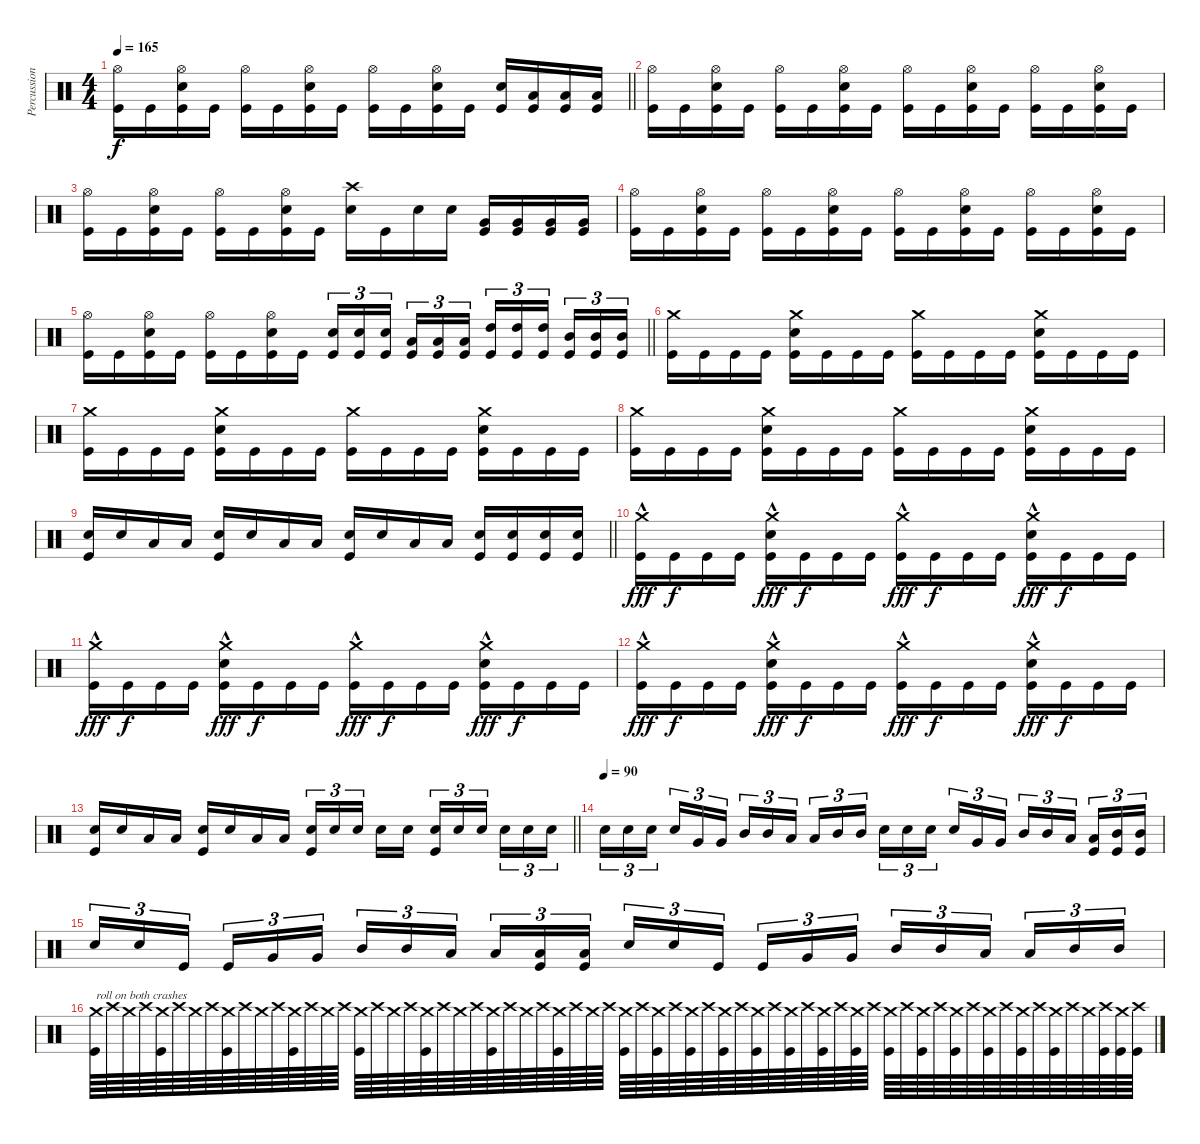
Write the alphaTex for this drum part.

\track ("Percussion (Aksu)" "Percussion") {instrument percussion}
\staff {score}
\articulation defaults
\ts (4 4)
\tempo 165
\clef neutral
\barLineRight lightlight
\ks c
("Hi-Hat (open)" "Kick (hit)").16{dy f} "Kick (hit)".16 ("Hi-Hat (open)" "Snare (hit) 2" "Kick (hit)").16 "Kick (hit)".16 ("Hi-Hat (open)" "Kick (hit)").16 "Kick (hit)".16 ("Hi-Hat (open)" "Snare (hit) 2" "Kick (hit)").16 "Kick (hit)".16 ("Hi-Hat (open)" "Kick (hit)").16 "Kick (hit)".16 ("Hi-Hat (open)" "Snare (hit) 2" "Kick (hit)").16 "Kick (hit)".16 ("Snare (hit) 2" "Kick (hit)").16 ("Low Floor Tom (hit)" "Kick (hit)").16 ("Low Floor Tom (hit)" "Kick (hit)").16 ("Low Floor Tom (hit)" "Kick (hit)").16 |
("Hi-Hat (open)" "Kick (hit)").16 "Kick (hit)".16 ("Hi-Hat (open)" "Snare (hit) 2" "Kick (hit)").16 "Kick (hit)".16 ("Hi-Hat (open)" "Kick (hit)").16 "Kick (hit)".16 ("Hi-Hat (open)" "Snare (hit) 2" "Kick (hit)").16 "Kick (hit)".16 ("Hi-Hat (open)" "Kick (hit)").16 "Kick (hit)".16 ("Hi-Hat (open)" "Snare (hit) 2" "Kick (hit)").16 "Kick (hit)".16 ("Hi-Hat (open)" "Kick (hit)").16 "Kick (hit)".16 ("Hi-Hat (open)" "Snare (hit) 2" "Kick (hit)").16 "Kick (hit)".16 |
("Hi-Hat (open)" "Kick (hit)").16 "Kick (hit)".16 ("Hi-Hat (open)" "Snare (hit) 2" "Kick (hit)").16 "Kick (hit)".16 ("Hi-Hat (open)" "Kick (hit)").16 "Kick (hit)".16 ("Hi-Hat (open)" "Snare (hit) 2" "Kick (hit)").16 "Kick (hit)".16 ("Crash high (hit)" "Snare (hit) 2").16 "Kick (hit)".16 "Snare (hit) 2".16 "Snare (hit) 2".16 ("Very Low Tom (hit)" "Kick (hit)").16 ("Very Low Tom (hit)" "Kick (hit)").16 ("Very Low Tom (hit)" "Kick (hit)").16 ("Very Low Tom (hit)" "Kick (hit)").16 |
("Hi-Hat (open)" "Kick (hit)").16 "Kick (hit)".16 ("Hi-Hat (open)" "Snare (hit) 2" "Kick (hit)").16 "Kick (hit)".16 ("Hi-Hat (open)" "Kick (hit)").16 "Kick (hit)".16 ("Hi-Hat (open)" "Snare (hit) 2" "Kick (hit)").16 "Kick (hit)".16 ("Hi-Hat (open)" "Kick (hit)").16 "Kick (hit)".16 ("Hi-Hat (open)" "Snare (hit) 2" "Kick (hit)").16 "Kick (hit)".16 ("Hi-Hat (open)" "Kick (hit)").16 "Kick (hit)".16 ("Hi-Hat (open)" "Snare (hit) 2" "Kick (hit)").16 "Kick (hit)".16 |
\barLineRight lightlight
("Hi-Hat (open)" "Kick (hit)").16 "Kick (hit)".16 ("Hi-Hat (open)" "Snare (hit) 2" "Kick (hit)").16 "Kick (hit)".16 ("Hi-Hat (open)" "Kick (hit)").16 "Kick (hit)".16 ("Hi-Hat (open)" "Snare (hit) 2" "Kick (hit)").16 "Kick (hit)".16 ("Snare (hit) 2" "Kick (hit)").16{tu (3 2)} ("Snare (hit) 2" "Kick (hit)").16{tu (3 2)} ("Snare (hit) 2" "Kick (hit)").16{tu (3 2) beam splitsecondary} ("Low Tom (hit)" "Kick (hit)").16{tu (3 2)} ("Low Tom (hit)" "Kick (hit)").16{tu (3 2)} ("Low Tom (hit)" "Kick (hit)").16{tu (3 2)} ("High Tom (hit)" "Kick (hit)").16{tu (3 2)} ("High Tom (hit)" "Kick (hit)").16{tu (3 2)} ("High Tom (hit)" "Kick (hit)").16{tu (3 2) beam splitsecondary} ("Mid Tom (hit)" "Kick (hit)").16{tu (3 2)} ("Mid Tom (hit)" "Kick (hit)").16{tu (3 2)} ("Mid Tom (hit)" "Kick (hit)").16{tu (3 2)} |
("Crash medium (hit)" "Kick (hit)").16 "Kick (hit)".16 "Kick (hit)".16 "Kick (hit)".16 ("Crash medium (hit)" "Snare (hit) 2" "Kick (hit)").16 "Kick (hit)".16 "Kick (hit)".16 "Kick (hit)".16 ("Crash medium (hit)" "Kick (hit)").16 "Kick (hit)".16 "Kick (hit)".16 "Kick (hit)".16 ("Crash medium (hit)" "Snare (hit) 2" "Kick (hit)").16 "Kick (hit)".16 "Kick (hit)".16 "Kick (hit)".16 |
("Crash medium (hit)" "Kick (hit)").16 "Kick (hit)".16 "Kick (hit)".16 "Kick (hit)".16 ("Crash medium (hit)" "Snare (hit) 2" "Kick (hit)").16 "Kick (hit)".16 "Kick (hit)".16 "Kick (hit)".16 ("Crash medium (hit)" "Kick (hit)").16 "Kick (hit)".16 "Kick (hit)".16 "Kick (hit)".16 ("Crash medium (hit)" "Snare (hit) 2" "Kick (hit)").16 "Kick (hit)".16 "Kick (hit)".16 "Kick (hit)".16 |
("Crash medium (hit)" "Kick (hit)").16 "Kick (hit)".16 "Kick (hit)".16 "Kick (hit)".16 ("Crash medium (hit)" "Snare (hit) 2" "Kick (hit)").16 "Kick (hit)".16 "Kick (hit)".16 "Kick (hit)".16 ("Crash medium (hit)" "Kick (hit)").16 "Kick (hit)".16 "Kick (hit)".16 "Kick (hit)".16 ("Crash medium (hit)" "Snare (hit) 2" "Kick (hit)").16 "Kick (hit)".16 "Kick (hit)".16 "Kick (hit)".16 |
\barLineRight lightlight
("Snare (hit) 2" "Kick (hit)").16 "Snare (hit) 2".16 "Low Tom (hit)".16 "Low Tom (hit)".16 ("Snare (hit) 2" "Kick (hit)").16 "Snare (hit) 2".16 "Low Tom (hit)".16 "Low Tom (hit)".16 ("Snare (hit) 2" "Kick (hit)").16 "Snare (hit) 2".16 "Low Tom (hit)".16 "Low Tom (hit)".16 ("Snare (hit) 2" "Kick (hit)").16 ("Snare (hit) 2" "Kick (hit)").16 ("Snare (hit) 2" "Kick (hit)").16 ("Snare (hit) 2" "Kick (hit)").16 |
("Crash medium (hit)"{hac} "Kick (hit)").16{dy fff volume 16} "Kick (hit)".16{dy f} "Kick (hit)".16 "Kick (hit)".16 ("Crash medium (hit)"{hac} "Snare (hit) 2" "Kick (hit)").16{dy fff} "Kick (hit)".16{dy f} "Kick (hit)".16 "Kick (hit)".16 ("Crash medium (hit)"{hac} "Kick (hit)").16{dy fff} "Kick (hit)".16{dy f} "Kick (hit)".16 "Kick (hit)".16 ("Crash medium (hit)"{hac} "Snare (hit) 2" "Kick (hit)").16{dy fff} "Kick (hit)".16{dy f} "Kick (hit)".16 "Kick (hit)".16 |
("Crash medium (hit)"{hac} "Kick (hit)").16{dy fff} "Kick (hit)".16{dy f} "Kick (hit)".16 "Kick (hit)".16 ("Crash medium (hit)"{hac} "Snare (hit) 2" "Kick (hit)").16{dy fff} "Kick (hit)".16{dy f} "Kick (hit)".16 "Kick (hit)".16 ("Crash medium (hit)"{hac} "Kick (hit)").16{dy fff} "Kick (hit)".16{dy f} "Kick (hit)".16 "Kick (hit)".16 ("Crash medium (hit)"{hac} "Snare (hit) 2" "Kick (hit)").16{dy fff} "Kick (hit)".16{dy f} "Kick (hit)".16 "Kick (hit)".16 |
("Crash medium (hit)"{hac} "Kick (hit)").16{dy fff} "Kick (hit)".16{dy f} "Kick (hit)".16 "Kick (hit)".16 ("Crash medium (hit)"{hac} "Snare (hit) 2" "Kick (hit)").16{dy fff} "Kick (hit)".16{dy f} "Kick (hit)".16 "Kick (hit)".16 ("Crash medium (hit)"{hac} "Kick (hit)").16{dy fff} "Kick (hit)".16{dy f} "Kick (hit)".16 "Kick (hit)".16 ("Crash medium (hit)"{hac} "Snare (hit) 2" "Kick (hit)").16{dy fff} "Kick (hit)".16{dy f} "Kick (hit)".16 "Kick (hit)".16 |
\barLineRight lightlight
("Snare (hit) 2" "Kick (hit)").16 "Snare (hit) 2".16 "Low Tom (hit)".16 "Low Tom (hit)".16 ("Snare (hit) 2" "Kick (hit)").16 "Snare (hit) 2".16 "Low Tom (hit)".16 "Low Tom (hit)".16 ("Snare (hit) 2" "Kick (hit)").16{tu (3 2)} "Snare (hit) 2".16{tu (3 2)} "Snare (hit) 2".16{tu (3 2) beam splitsecondary} "Snare (hit) 2".16 "Snare (hit) 2".16 ("Snare (hit) 2" "Kick (hit)").16{tu (3 2)} "Snare (hit) 2".16{tu (3 2)} "Snare (hit) 2".16{tu (3 2) beam splitsecondary} "Snare (hit) 2".16{tu (3 2)} "Snare (hit) 2".16{tu (3 2)} "Snare (hit) 2".16{tu (3 2)} |
\tempo (90)
"Snare (hit) 2".16{tu (3 2)} "Snare (hit) 2".16{tu (3 2)} "Snare (hit) 2".16{tu (3 2) beam splitsecondary} "Snare (hit) 2".16{tu (3 2)} "Very Low Tom (hit)".16{tu (3 2)} "Very Low Tom (hit)".16{tu (3 2)} "Mid Tom (hit)".16{tu (3 2)} "Mid Tom (hit)".16{tu (3 2)} "Low Tom (hit)".16{tu (3 2) beam splitsecondary} "Low Tom (hit)".16{tu (3 2)} "Mid Tom (hit)".16{tu (3 2)} "Mid Tom (hit)".16{tu (3 2)} "Snare (hit) 2".16{tu (3 2)} "Snare (hit) 2".16{tu (3 2)} "Snare (hit) 2".16{tu (3 2) beam splitsecondary} "Snare (hit) 2".16{tu (3 2)} "Very Low Tom (hit)".16{tu (3 2)} "Very Low Tom (hit)".16{tu (3 2)} "Mid Tom (hit)".16{tu (3 2)} "Mid Tom (hit)".16{tu (3 2)} "Low Tom (hit)".16{tu (3 2) beam splitsecondary} ("Low Tom (hit)" "Kick (hit)").16{tu (3 2)} ("Mid Tom (hit)" "Kick (hit)").16{tu (3 2)} ("Mid Tom (hit)" "Kick (hit)").16{tu (3 2)} |
"Snare (hit) 2".16{tu (3 2)} "Snare (hit) 2".16{tu (3 2)} "Kick (hit)".16{tu (3 2) beam splitsecondary} "Kick (hit)".16{tu (3 2)} "Very Low Tom (hit)".16{tu (3 2)} "Very Low Tom (hit)".16{tu (3 2)} "Mid Tom (hit)".16{tu (3 2)} "Mid Tom (hit)".16{tu (3 2)} "Low Tom (hit)".16{tu (3 2) beam splitsecondary} "Low Tom (hit)".16{tu (3 2)} ("Low Floor Tom (hit)" "Kick (hit)").16{tu (3 2)} ("Low Floor Tom (hit)" "Kick (hit)").16{tu (3 2)} "Snare (hit) 2".16{tu (3 2)} "Snare (hit) 2".16{tu (3 2)} "Kick (hit)".16{tu (3 2) beam splitsecondary} "Kick (hit)".16{tu (3 2)} "Very Low Tom (hit)".16{tu (3 2)} "Very Low Tom (hit)".16{tu (3 2)} "Mid Tom (hit)".16{tu (3 2)} "Mid Tom (hit)".16{tu (3 2)} "Low Tom (hit)".16{tu (3 2) beam splitsecondary} "Low Tom (hit)".16{tu (3 2)} "Mid Tom (hit)".16{tu (3 2)} "Mid Tom (hit)".16{tu (3 2)} |
("Crash medium (hit)" "Kick (hit)").64{txt "roll on both crashes"} "Crash high (hit)".64 "Crash medium (hit)".64 "Crash high (hit)".64 ("Crash medium (hit)" "Kick (hit)").64 "Crash high (hit)".64 "Crash medium (hit)".64 "Crash high (hit)".64 ("Crash medium (hit)" "Kick (hit)").64 "Crash high (hit)".64 "Crash medium (hit)".64 "Crash high (hit)".64 ("Crash medium (hit)" "Kick (hit)").64 "Crash high (hit)".64 "Crash medium (hit)".64 "Crash high (hit)".64 ("Crash medium (hit)" "Kick (hit)").64 "Crash high (hit)".64 "Crash medium (hit)".64 "Crash high (hit)".64 ("Crash medium (hit)" "Kick (hit)").64 "Crash high (hit)".64 "Crash medium (hit)".64 "Crash high (hit)".64 ("Crash medium (hit)" "Kick (hit)").64 "Crash high (hit)".64 "Crash medium (hit)".64 "Crash high (hit)".64 ("Crash medium (hit)" "Kick (hit)").64 "Crash high (hit)".64 "Crash medium (hit)".64 "Crash high (hit)".64 ("Crash medium (hit)" "Kick (hit)").64 "Crash high (hit)".64 ("Crash medium (hit)" "Kick (hit)").64 "Crash high (hit)".64 ("Crash medium (hit)" "Kick (hit)").64 "Crash high (hit)".64 ("Crash medium (hit)" "Kick (hit)").64 "Crash high (hit)".64 ("Crash medium (hit)" "Kick (hit)").64 "Crash high (hit)".64 ("Crash medium (hit)" "Kick (hit)").64 "Crash high (hit)".64 ("Crash medium (hit)" "Kick (hit)").64 "Crash high (hit)".64 ("Crash medium (hit)" "Kick (hit)").64 "Crash high (hit)".64 ("Crash medium (hit)" "Kick (hit)").64 "Crash high (hit)".64 ("Crash medium (hit)" "Kick (hit)").64 "Crash high (hit)".64 ("Crash medium (hit)" "Kick (hit)").64 "Crash high (hit)".64 ("Crash medium (hit)" "Kick (hit)").64 "Crash high (hit)".64 ("Crash medium (hit)" "Kick (hit)").64 "Crash high (hit)".64 ("Crash medium (hit)" "Kick (hit)").64 "Crash high (hit)".64 "Crash medium (hit)".64 ("Crash high (hit)" "Kick (hit)").64 ("Crash medium (hit)" "Kick (hit)").64 ("Crash high (hit)" "Kick (hit)").64
